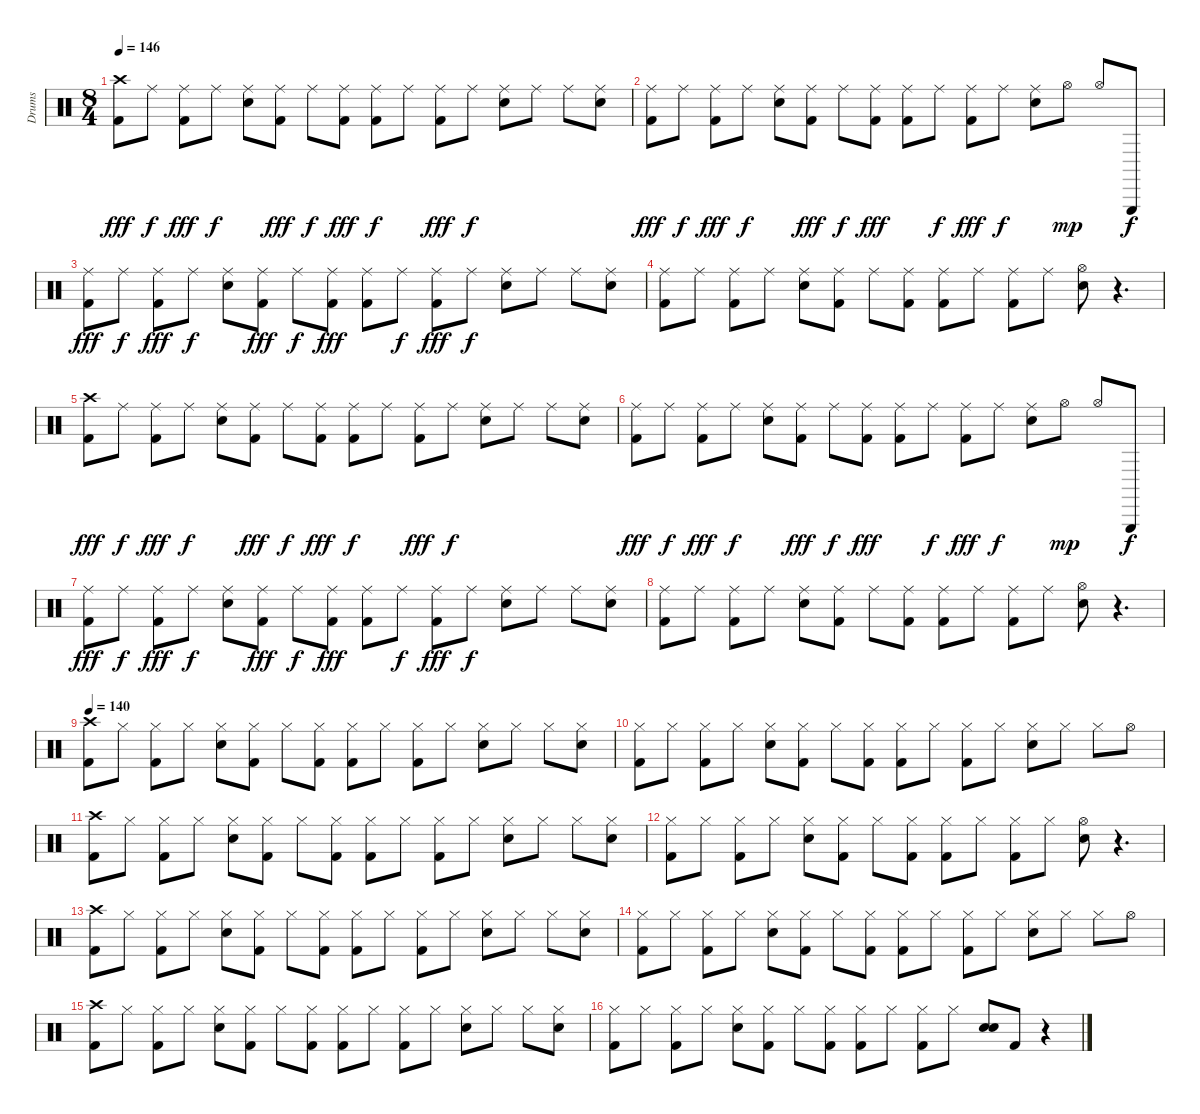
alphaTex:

\track ("Drums" "Drums") {instrument percussion}
\staff {score}
\articulation defaults
\ts (8 4)
\tempo 146
\clef neutral
\ks c
("Crash high (hit)" "Kick (hit) 2").8{dy fff} "Ride (middle)".8{dy f} ("Ride (middle)" "Kick (hit) 2").8{dy fff} "Ride (middle)".8{dy f} ("Ride (middle)" "Snare (hit) 2").8 ("Ride (middle)" "Kick (hit) 2").8{dy fff} "Ride (middle)".8{dy f} ("Ride (middle)" "Kick (hit) 2").8{dy fff} ("Ride (middle)" "Kick (hit) 2").8{dy f} "Ride (middle)".8 ("Ride (middle)" "Kick (hit) 2").8{dy fff} "Ride (middle)".8{dy f} ("Ride (middle)" "Snare (hit) 2").8 "Ride (middle)".8 "Ride (middle)".8 ("Ride (middle)" "Snare (hit) 2").8 |
("Ride (middle)" "Kick (hit) 2").8{dy fff} "Ride (middle)".8{dy f} ("Ride (middle)" "Kick (hit) 2").8{dy fff} "Ride (middle)".8{dy f} ("Ride (middle)" "Snare (hit) 2").8 ("Ride (middle)" "Kick (hit) 2").8{dy fff} "Ride (middle)".8{dy f} ("Ride (middle)" "Kick (hit) 2").8{dy fff} ("Ride (middle)" "Kick (hit) 2").8 "Ride (middle)".8{dy f} ("Ride (middle)" "Kick (hit) 2").8{dy fff} "Ride (middle)".8{dy f} ("Ride (middle)" "Snare (hit) 2").8 "Hi-Hat (open)".8{dy mp} "Hi-Hat (open)".8 "Triangle (hit)".8{dy f} |
("Ride (middle)" "Kick (hit) 2").8{dy fff} "Ride (middle)".8{dy f} ("Ride (middle)" "Kick (hit) 2").8{dy fff} "Ride (middle)".8{dy f} ("Ride (middle)" "Snare (hit) 2").8 ("Ride (middle)" "Kick (hit) 2").8{dy fff} "Ride (middle)".8{dy f} ("Ride (middle)" "Kick (hit) 2").8{dy fff} ("Ride (middle)" "Kick (hit) 2").8 "Ride (middle)".8{dy f} ("Ride (middle)" "Kick (hit) 2").8{dy fff} "Ride (middle)".8{dy f} ("Ride (middle)" "Snare (hit) 2").8 "Ride (middle)".8 "Ride (middle)".8 ("Ride (middle)" "Snare (hit) 2").8 |
("Ride (middle)" "Kick (hit) 2").8 "Ride (middle)".8 ("Ride (middle)" "Kick (hit) 2").8 "Ride (middle)".8 ("Ride (middle)" "Snare (hit) 2").8 ("Ride (middle)" "Kick (hit) 2").8 "Ride (middle)".8 ("Ride (middle)" "Kick (hit) 2").8 ("Ride (middle)" "Kick (hit) 2").8 "Ride (middle)".8 ("Ride (middle)" "Kick (hit) 2").8 "Ride (middle)".8 ("Hi-Hat (open)" "Snare (hit) 2").8 r.4{d} |
("Crash high (hit)" "Kick (hit) 2").8{dy fff} "Ride (middle)".8{dy f} ("Ride (middle)" "Kick (hit) 2").8{dy fff} "Ride (middle)".8{dy f} ("Ride (middle)" "Snare (hit) 2").8 ("Ride (middle)" "Kick (hit) 2").8{dy fff} "Ride (middle)".8{dy f} ("Ride (middle)" "Kick (hit) 2").8{dy fff} ("Ride (middle)" "Kick (hit) 2").8{dy f} "Ride (middle)".8 ("Ride (middle)" "Kick (hit) 2").8{dy fff} "Ride (middle)".8{dy f} ("Ride (middle)" "Snare (hit) 2").8 "Ride (middle)".8 "Ride (middle)".8 ("Ride (middle)" "Snare (hit) 2").8 |
("Ride (middle)" "Kick (hit) 2").8{dy fff} "Ride (middle)".8{dy f} ("Ride (middle)" "Kick (hit) 2").8{dy fff} "Ride (middle)".8{dy f} ("Ride (middle)" "Snare (hit) 2").8 ("Ride (middle)" "Kick (hit) 2").8{dy fff} "Ride (middle)".8{dy f} ("Ride (middle)" "Kick (hit) 2").8{dy fff} ("Ride (middle)" "Kick (hit) 2").8 "Ride (middle)".8{dy f} ("Ride (middle)" "Kick (hit) 2").8{dy fff} "Ride (middle)".8{dy f} ("Ride (middle)" "Snare (hit) 2").8 "Hi-Hat (open)".8{dy mp} "Hi-Hat (open)".8 "Triangle (hit)".8{dy f} |
("Ride (middle)" "Kick (hit) 2").8{dy fff} "Ride (middle)".8{dy f} ("Ride (middle)" "Kick (hit) 2").8{dy fff} "Ride (middle)".8{dy f} ("Ride (middle)" "Snare (hit) 2").8 ("Ride (middle)" "Kick (hit) 2").8{dy fff} "Ride (middle)".8{dy f} ("Ride (middle)" "Kick (hit) 2").8{dy fff} ("Ride (middle)" "Kick (hit) 2").8 "Ride (middle)".8{dy f} ("Ride (middle)" "Kick (hit) 2").8{dy fff} "Ride (middle)".8{dy f} ("Ride (middle)" "Snare (hit) 2").8 "Ride (middle)".8 "Ride (middle)".8 ("Ride (middle)" "Snare (hit) 2").8 |
("Ride (middle)" "Kick (hit) 2").8 "Ride (middle)".8 ("Ride (middle)" "Kick (hit) 2").8 "Ride (middle)".8 ("Ride (middle)" "Snare (hit) 2").8 ("Ride (middle)" "Kick (hit) 2").8 "Ride (middle)".8 ("Ride (middle)" "Kick (hit) 2").8 ("Ride (middle)" "Kick (hit) 2").8 "Ride (middle)".8 ("Ride (middle)" "Kick (hit) 2").8 "Ride (middle)".8 ("Hi-Hat (open)" "Snare (hit) 2").8 r.4{d} |
\tempo 140
("Crash high (hit)" "Kick (hit) 2").8 "Hi-Hat (closed)".8 ("Hi-Hat (closed)" "Kick (hit) 2").8 "Hi-Hat (closed)".8 ("Hi-Hat (closed)" "Snare (hit) 2").8 ("Hi-Hat (closed)" "Kick (hit) 2").8 "Hi-Hat (closed)".8 ("Hi-Hat (closed)" "Kick (hit) 2").8 ("Hi-Hat (closed)" "Kick (hit) 2").8 "Hi-Hat (closed)".8 ("Hi-Hat (closed)" "Kick (hit) 2").8 "Hi-Hat (closed)".8 ("Hi-Hat (closed)" "Snare (hit) 2").8 "Hi-Hat (closed)".8 "Hi-Hat (closed)".8 ("Hi-Hat (closed)" "Snare (hit) 2").8 |
("Hi-Hat (closed)" "Kick (hit) 2").8 "Hi-Hat (closed)".8 ("Hi-Hat (closed)" "Kick (hit) 2").8 "Hi-Hat (closed)".8 ("Hi-Hat (closed)" "Snare (hit) 2").8 ("Hi-Hat (closed)" "Kick (hit) 2").8 "Hi-Hat (closed)".8 ("Hi-Hat (closed)" "Kick (hit) 2").8 ("Hi-Hat (closed)" "Kick (hit) 2").8 "Hi-Hat (closed)".8 ("Hi-Hat (closed)" "Kick (hit) 2").8 "Hi-Hat (closed)".8 ("Hi-Hat (closed)" "Snare (hit) 2").8 "Hi-Hat (closed)".8 "Hi-Hat (closed)".8 "Hi-Hat (open)".8 |
("Crash high (hit)" "Kick (hit) 2").8 "Hi-Hat (closed)".8 ("Hi-Hat (closed)" "Kick (hit) 2").8 "Hi-Hat (closed)".8 ("Hi-Hat (closed)" "Snare (hit) 2").8 ("Hi-Hat (closed)" "Kick (hit) 2").8 "Hi-Hat (closed)".8 ("Hi-Hat (closed)" "Kick (hit) 2").8 ("Hi-Hat (closed)" "Kick (hit) 2").8 "Hi-Hat (closed)".8 ("Hi-Hat (closed)" "Kick (hit) 2").8 "Hi-Hat (closed)".8 ("Hi-Hat (closed)" "Snare (hit) 2").8 "Hi-Hat (closed)".8 "Hi-Hat (closed)".8 ("Hi-Hat (closed)" "Snare (hit) 2").8 |
("Hi-Hat (closed)" "Kick (hit) 2").8 "Hi-Hat (closed)".8 ("Hi-Hat (closed)" "Kick (hit) 2").8 "Hi-Hat (closed)".8 ("Hi-Hat (closed)" "Snare (hit) 2").8 ("Hi-Hat (closed)" "Kick (hit) 2").8 "Hi-Hat (closed)".8 ("Hi-Hat (closed)" "Kick (hit) 2").8 ("Hi-Hat (closed)" "Kick (hit) 2").8 "Hi-Hat (closed)".8 ("Hi-Hat (closed)" "Kick (hit) 2").8 "Hi-Hat (closed)".8 ("Hi-Hat (open)" "Snare (hit) 2").8 r.4{d} |
("Crash high (hit)" "Kick (hit) 2").8 "Hi-Hat (closed)".8 ("Hi-Hat (closed)" "Kick (hit) 2").8 "Hi-Hat (closed)".8 ("Hi-Hat (closed)" "Snare (hit) 2").8 ("Hi-Hat (closed)" "Kick (hit) 2").8 "Hi-Hat (closed)".8 ("Hi-Hat (closed)" "Kick (hit) 2").8 ("Hi-Hat (closed)" "Kick (hit) 2").8 "Hi-Hat (closed)".8 ("Hi-Hat (closed)" "Kick (hit) 2").8 "Hi-Hat (closed)".8 ("Hi-Hat (closed)" "Snare (hit) 2").8 "Hi-Hat (closed)".8 "Hi-Hat (closed)".8 ("Hi-Hat (closed)" "Snare (hit) 2").8 |
("Hi-Hat (closed)" "Kick (hit) 2").8 "Hi-Hat (closed)".8 ("Hi-Hat (closed)" "Kick (hit) 2").8 "Hi-Hat (closed)".8 ("Hi-Hat (closed)" "Snare (hit) 2").8 ("Hi-Hat (closed)" "Kick (hit) 2").8 "Hi-Hat (closed)".8 ("Hi-Hat (closed)" "Kick (hit) 2").8 ("Hi-Hat (closed)" "Kick (hit) 2").8 "Hi-Hat (closed)".8 ("Hi-Hat (closed)" "Kick (hit) 2").8 "Hi-Hat (closed)".8 ("Hi-Hat (closed)" "Snare (hit) 2").8 "Hi-Hat (closed)".8 "Hi-Hat (closed)".8 "Hi-Hat (open)".8 |
("Crash high (hit)" "Kick (hit) 2").8 "Hi-Hat (closed)".8 ("Hi-Hat (closed)" "Kick (hit) 2").8 "Hi-Hat (closed)".8 ("Hi-Hat (closed)" "Snare (hit) 2").8 ("Hi-Hat (closed)" "Kick (hit) 2").8 "Hi-Hat (closed)".8 ("Hi-Hat (closed)" "Kick (hit) 2").8 ("Hi-Hat (closed)" "Kick (hit) 2").8 "Hi-Hat (closed)".8 ("Hi-Hat (closed)" "Kick (hit) 2").8 "Hi-Hat (closed)".8 ("Hi-Hat (closed)" "Snare (hit) 2").8 "Hi-Hat (closed)".8 "Hi-Hat (closed)".8 ("Hi-Hat (closed)" "Snare (hit) 2").8 |
("Hi-Hat (closed)" "Kick (hit) 2").8 "Hi-Hat (closed)".8 ("Hi-Hat (closed)" "Kick (hit) 2").8 "Hi-Hat (closed)".8 ("Hi-Hat (closed)" "Snare (hit) 2").8 ("Hi-Hat (closed)" "Kick (hit) 2").8 "Hi-Hat (closed)".8 ("Hi-Hat (closed)" "Kick (hit) 2").8 ("Hi-Hat (closed)" "Kick (hit) 2").8 "Hi-Hat (closed)".8 ("Hi-Hat (closed)" "Kick (hit) 2").8 "Hi-Hat (closed)".8 ("Snare (hit) 2" "Snare (hit) 2").8{bu 240} "Kick (hit) 2".8 r.4
